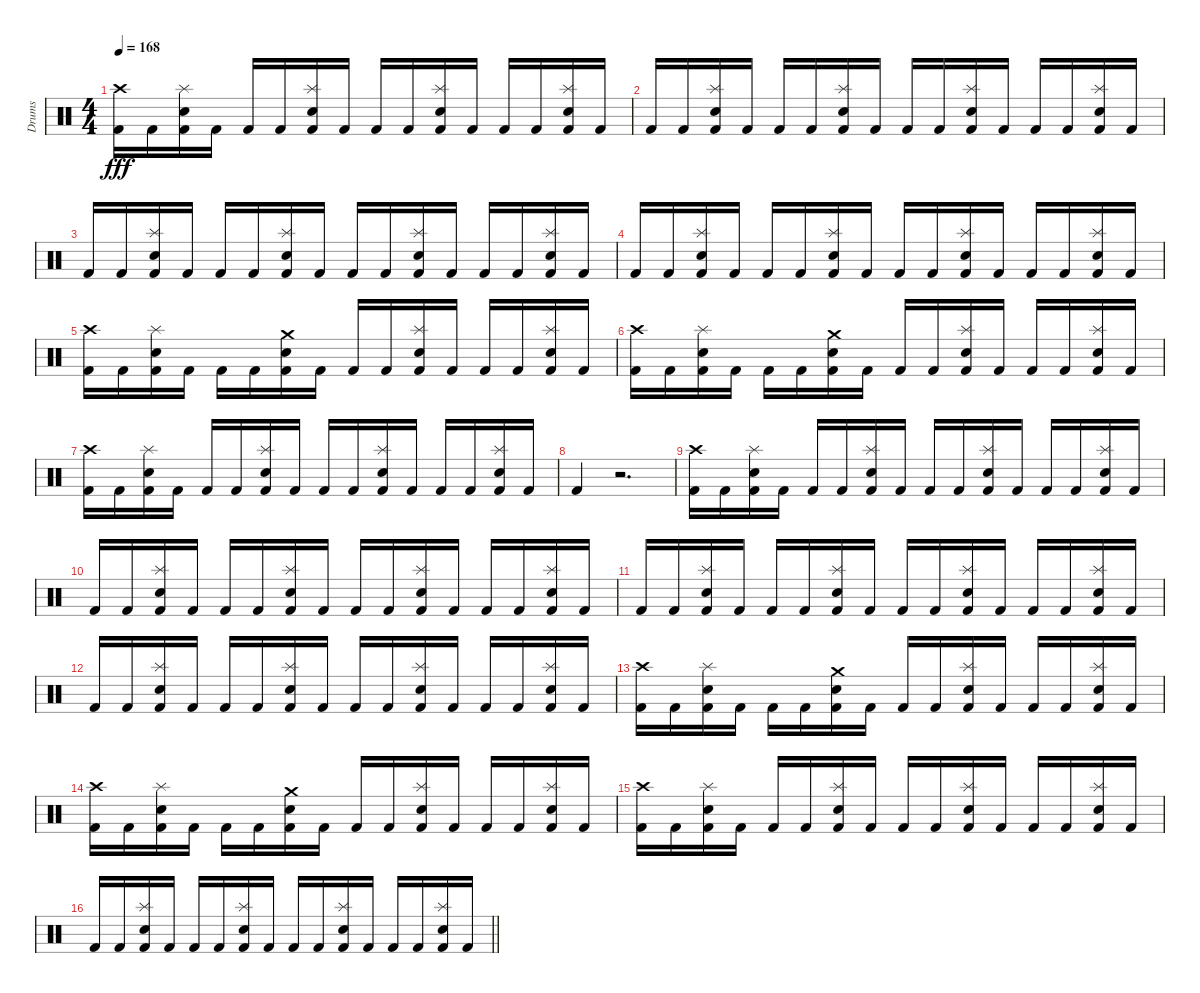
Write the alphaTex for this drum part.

\track ("Drums" "Drums") {instrument percussion}
\staff {score}
\articulation defaults
\ts (4 4)
\tempo 168
\clef neutral
\ks c
("Crash high (hit)" "Kick (hit) 2").16{dy fff} "Kick (hit) 2".16 ("Splash (hit)" "Snare (hit) 2" "Kick (hit) 2").16 "Kick (hit) 2".16 "Kick (hit) 2".16 "Kick (hit) 2".16 ("Splash (hit)" "Snare (hit) 2" "Kick (hit) 2").16 "Kick (hit) 2".16 "Kick (hit) 2".16 "Kick (hit) 2".16 ("Splash (hit)" "Snare (hit) 2" "Kick (hit) 2").16 "Kick (hit) 2".16 "Kick (hit) 2".16 "Kick (hit) 2".16 ("Splash (hit)" "Snare (hit) 2" "Kick (hit) 2").16 "Kick (hit) 2".16 |
"Kick (hit) 2".16 "Kick (hit) 2".16 ("Splash (hit)" "Snare (hit) 2" "Kick (hit) 2").16 "Kick (hit) 2".16 "Kick (hit) 2".16 "Kick (hit) 2".16 ("Splash (hit)" "Snare (hit) 2" "Kick (hit) 2").16 "Kick (hit) 2".16 "Kick (hit) 2".16 "Kick (hit) 2".16 ("Splash (hit)" "Snare (hit) 2" "Kick (hit) 2").16 "Kick (hit) 2".16 "Kick (hit) 2".16 "Kick (hit) 2".16 ("Splash (hit)" "Snare (hit) 2" "Kick (hit) 2").16 "Kick (hit) 2".16 |
"Kick (hit) 2".16 "Kick (hit) 2".16 ("Splash (hit)" "Snare (hit) 2" "Kick (hit) 2").16 "Kick (hit) 2".16 "Kick (hit) 2".16 "Kick (hit) 2".16 ("Splash (hit)" "Snare (hit) 2" "Kick (hit) 2").16 "Kick (hit) 2".16 "Kick (hit) 2".16 "Kick (hit) 2".16 ("Splash (hit)" "Snare (hit) 2" "Kick (hit) 2").16 "Kick (hit) 2".16 "Kick (hit) 2".16 "Kick (hit) 2".16 ("Splash (hit)" "Snare (hit) 2" "Kick (hit) 2").16 "Kick (hit) 2".16 |
"Kick (hit) 2".16 "Kick (hit) 2".16 ("Splash (hit)" "Snare (hit) 2" "Kick (hit) 2").16 "Kick (hit) 2".16 "Kick (hit) 2".16 "Kick (hit) 2".16 ("Splash (hit)" "Snare (hit) 2" "Kick (hit) 2").16 "Kick (hit) 2".16 "Kick (hit) 2".16 "Kick (hit) 2".16 ("Splash (hit)" "Snare (hit) 2" "Kick (hit) 2").16 "Kick (hit) 2".16 "Kick (hit) 2".16 "Kick (hit) 2".16 ("Splash (hit)" "Snare (hit) 2" "Kick (hit) 2").16 "Kick (hit) 2".16 |
("Crash high (hit)" "Kick (hit) 2").16 "Kick (hit) 2".16 ("Splash (hit)" "Snare (hit) 2" "Kick (hit) 2").16 "Kick (hit) 2".16 "Kick (hit) 2".16 "Kick (hit) 2".16 ("Crash medium (hit)" "Snare (hit) 2" "Kick (hit) 2").16 "Kick (hit) 2".16 "Kick (hit) 2".16 "Kick (hit) 2".16 ("Splash (hit)" "Snare (hit) 2" "Kick (hit) 2").16 "Kick (hit) 2".16 "Kick (hit) 2".16 "Kick (hit) 2".16 ("Splash (hit)" "Snare (hit) 2" "Kick (hit) 2").16 "Kick (hit) 2".16 |
("Crash high (hit)" "Kick (hit) 2").16 "Kick (hit) 2".16 ("Splash (hit)" "Snare (hit) 2" "Kick (hit) 2").16 "Kick (hit) 2".16 "Kick (hit) 2".16 "Kick (hit) 2".16 ("Crash medium (hit)" "Snare (hit) 2" "Kick (hit) 2").16 "Kick (hit) 2".16 "Kick (hit) 2".16 "Kick (hit) 2".16 ("Splash (hit)" "Snare (hit) 2" "Kick (hit) 2").16 "Kick (hit) 2".16 "Kick (hit) 2".16 "Kick (hit) 2".16 ("Splash (hit)" "Snare (hit) 2" "Kick (hit) 2").16 "Kick (hit) 2".16 |
("Crash high (hit)" "Kick (hit) 2").16 "Kick (hit) 2".16 ("Splash (hit)" "Snare (hit) 2" "Kick (hit) 2").16 "Kick (hit) 2".16 "Kick (hit) 2".16 "Kick (hit) 2".16 ("Splash (hit)" "Snare (hit) 2" "Kick (hit) 2").16 "Kick (hit) 2".16 "Kick (hit) 2".16 "Kick (hit) 2".16 ("Splash (hit)" "Snare (hit) 2" "Kick (hit) 2").16 "Kick (hit) 2".16 "Kick (hit) 2".16 "Kick (hit) 2".16 ("Splash (hit)" "Snare (hit) 2" "Kick (hit) 2").16 "Kick (hit) 2".16 |
"Kick (hit) 2".4 r.2{d} |
("Crash high (hit)" "Kick (hit) 2").16 "Kick (hit) 2".16 ("Splash (hit)" "Snare (hit) 2" "Kick (hit) 2").16 "Kick (hit) 2".16 "Kick (hit) 2".16 "Kick (hit) 2".16 ("Splash (hit)" "Snare (hit) 2" "Kick (hit) 2").16 "Kick (hit) 2".16 "Kick (hit) 2".16 "Kick (hit) 2".16 ("Splash (hit)" "Snare (hit) 2" "Kick (hit) 2").16 "Kick (hit) 2".16 "Kick (hit) 2".16 "Kick (hit) 2".16 ("Splash (hit)" "Snare (hit) 2" "Kick (hit) 2").16 "Kick (hit) 2".16 |
"Kick (hit) 2".16 "Kick (hit) 2".16 ("Splash (hit)" "Snare (hit) 2" "Kick (hit) 2").16 "Kick (hit) 2".16 "Kick (hit) 2".16 "Kick (hit) 2".16 ("Splash (hit)" "Snare (hit) 2" "Kick (hit) 2").16 "Kick (hit) 2".16 "Kick (hit) 2".16 "Kick (hit) 2".16 ("Splash (hit)" "Snare (hit) 2" "Kick (hit) 2").16 "Kick (hit) 2".16 "Kick (hit) 2".16 "Kick (hit) 2".16 ("Splash (hit)" "Snare (hit) 2" "Kick (hit) 2").16 "Kick (hit) 2".16 |
"Kick (hit) 2".16 "Kick (hit) 2".16 ("Splash (hit)" "Snare (hit) 2" "Kick (hit) 2").16 "Kick (hit) 2".16 "Kick (hit) 2".16 "Kick (hit) 2".16 ("Splash (hit)" "Snare (hit) 2" "Kick (hit) 2").16 "Kick (hit) 2".16 "Kick (hit) 2".16 "Kick (hit) 2".16 ("Splash (hit)" "Snare (hit) 2" "Kick (hit) 2").16 "Kick (hit) 2".16 "Kick (hit) 2".16 "Kick (hit) 2".16 ("Splash (hit)" "Snare (hit) 2" "Kick (hit) 2").16 "Kick (hit) 2".16 |
"Kick (hit) 2".16 "Kick (hit) 2".16 ("Splash (hit)" "Snare (hit) 2" "Kick (hit) 2").16 "Kick (hit) 2".16 "Kick (hit) 2".16 "Kick (hit) 2".16 ("Splash (hit)" "Snare (hit) 2" "Kick (hit) 2").16 "Kick (hit) 2".16 "Kick (hit) 2".16 "Kick (hit) 2".16 ("Splash (hit)" "Snare (hit) 2" "Kick (hit) 2").16 "Kick (hit) 2".16 "Kick (hit) 2".16 "Kick (hit) 2".16 ("Splash (hit)" "Snare (hit) 2" "Kick (hit) 2").16 "Kick (hit) 2".16 |
("Crash high (hit)" "Kick (hit) 2").16 "Kick (hit) 2".16 ("Splash (hit)" "Snare (hit) 2" "Kick (hit) 2").16 "Kick (hit) 2".16 "Kick (hit) 2".16 "Kick (hit) 2".16 ("Crash medium (hit)" "Snare (hit) 2" "Kick (hit) 2").16 "Kick (hit) 2".16 "Kick (hit) 2".16 "Kick (hit) 2".16 ("Splash (hit)" "Snare (hit) 2" "Kick (hit) 2").16 "Kick (hit) 2".16 "Kick (hit) 2".16 "Kick (hit) 2".16 ("Splash (hit)" "Snare (hit) 2" "Kick (hit) 2").16 "Kick (hit) 2".16 |
("Crash high (hit)" "Kick (hit) 2").16 "Kick (hit) 2".16 ("Splash (hit)" "Snare (hit) 2" "Kick (hit) 2").16 "Kick (hit) 2".16 "Kick (hit) 2".16 "Kick (hit) 2".16 ("Crash medium (hit)" "Snare (hit) 2" "Kick (hit) 2").16 "Kick (hit) 2".16 "Kick (hit) 2".16 "Kick (hit) 2".16 ("Splash (hit)" "Snare (hit) 2" "Kick (hit) 2").16 "Kick (hit) 2".16 "Kick (hit) 2".16 "Kick (hit) 2".16 ("Splash (hit)" "Snare (hit) 2" "Kick (hit) 2").16 "Kick (hit) 2".16 |
("Crash high (hit)" "Kick (hit) 2").16 "Kick (hit) 2".16 ("Splash (hit)" "Snare (hit) 2" "Kick (hit) 2").16 "Kick (hit) 2".16 "Kick (hit) 2".16 "Kick (hit) 2".16 ("Splash (hit)" "Snare (hit) 2" "Kick (hit) 2").16 "Kick (hit) 2".16 "Kick (hit) 2".16 "Kick (hit) 2".16 ("Splash (hit)" "Snare (hit) 2" "Kick (hit) 2").16 "Kick (hit) 2".16 "Kick (hit) 2".16 "Kick (hit) 2".16 ("Splash (hit)" "Snare (hit) 2" "Kick (hit) 2").16 "Kick (hit) 2".16 |
\barLineRight lightlight "Kick (hit) 2".16 "Kick (hit) 2".16
("Splash (hit)" "Snare (hit) 2" "Kick (hit) 2").16 "Kick (hit) 2".16 "Kick (hit) 2".16 "Kick (hit) 2".16 ("Splash (hit)" "Snare (hit) 2" "Kick (hit) 2").16 "Kick (hit) 2".16 "Kick (hit) 2".16 "Kick (hit) 2".16 ("Splash (hit)" "Snare (hit) 2" "Kick (hit) 2").16 "Kick (hit) 2".16 "Kick (hit) 2".16 "Kick (hit) 2".16 ("Splash (hit)" "Snare (hit) 2" "Kick (hit) 2").16 "Kick (hit) 2".16
